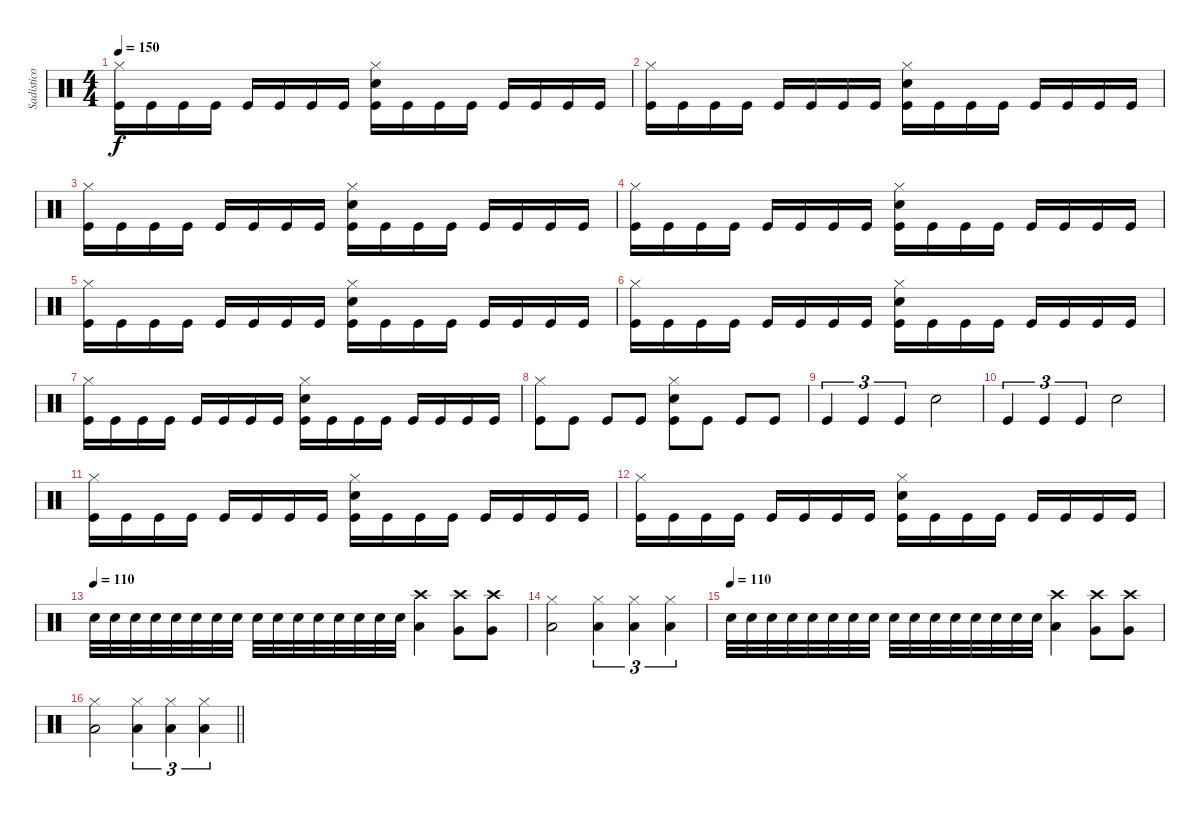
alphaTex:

\track ("Sadistico" "Sadistico") {solo instrument percussion}
\staff {score}
\articulation defaults
\ts (4 4)
\tempo 150
\clef neutral
\ks c
("Hi-Hat (closed)" "Kick (hit)").16{dy f} "Kick (hit)".16 "Kick (hit)".16 "Kick (hit)".16 "Kick (hit)".16 "Kick (hit)".16 "Kick (hit)".16 "Kick (hit)".16 ("Hi-Hat (closed)" "Snare (hit) 2" "Kick (hit)").16 "Kick (hit)".16 "Kick (hit)".16 "Kick (hit)".16 "Kick (hit)".16 "Kick (hit)".16 "Kick (hit)".16 "Kick (hit)".16 |
("Hi-Hat (closed)" "Kick (hit)").16 "Kick (hit)".16 "Kick (hit)".16 "Kick (hit)".16 "Kick (hit)".16 "Kick (hit)".16 "Kick (hit)".16 "Kick (hit)".16 ("Hi-Hat (closed)" "Snare (hit) 2" "Kick (hit)").16 "Kick (hit)".16 "Kick (hit)".16 "Kick (hit)".16 "Kick (hit)".16 "Kick (hit)".16 "Kick (hit)".16 "Kick (hit)".16 |
("Hi-Hat (closed)" "Kick (hit)").16 "Kick (hit)".16 "Kick (hit)".16 "Kick (hit)".16 "Kick (hit)".16 "Kick (hit)".16 "Kick (hit)".16 "Kick (hit)".16 ("Hi-Hat (closed)" "Snare (hit) 2" "Kick (hit)").16 "Kick (hit)".16 "Kick (hit)".16 "Kick (hit)".16 "Kick (hit)".16 "Kick (hit)".16 "Kick (hit)".16 "Kick (hit)".16 |
("Hi-Hat (closed)" "Kick (hit)").16 "Kick (hit)".16 "Kick (hit)".16 "Kick (hit)".16 "Kick (hit)".16 "Kick (hit)".16 "Kick (hit)".16 "Kick (hit)".16 ("Hi-Hat (closed)" "Snare (hit) 2" "Kick (hit)").16 "Kick (hit)".16 "Kick (hit)".16 "Kick (hit)".16 "Kick (hit)".16 "Kick (hit)".16 "Kick (hit)".16 "Kick (hit)".16 |
("Hi-Hat (closed)" "Kick (hit)").16 "Kick (hit)".16 "Kick (hit)".16 "Kick (hit)".16 "Kick (hit)".16 "Kick (hit)".16 "Kick (hit)".16 "Kick (hit)".16 ("Hi-Hat (closed)" "Snare (hit) 2" "Kick (hit)").16 "Kick (hit)".16 "Kick (hit)".16 "Kick (hit)".16 "Kick (hit)".16 "Kick (hit)".16 "Kick (hit)".16 "Kick (hit)".16 |
("Hi-Hat (closed)" "Kick (hit)").16 "Kick (hit)".16 "Kick (hit)".16 "Kick (hit)".16 "Kick (hit)".16 "Kick (hit)".16 "Kick (hit)".16 "Kick (hit)".16 ("Hi-Hat (closed)" "Snare (hit) 2" "Kick (hit)").16 "Kick (hit)".16 "Kick (hit)".16 "Kick (hit)".16 "Kick (hit)".16 "Kick (hit)".16 "Kick (hit)".16 "Kick (hit)".16 |
("Hi-Hat (closed)" "Kick (hit)").16 "Kick (hit)".16 "Kick (hit)".16 "Kick (hit)".16 "Kick (hit)".16 "Kick (hit)".16 "Kick (hit)".16 "Kick (hit)".16 ("Hi-Hat (closed)" "Snare (hit) 2" "Kick (hit)").16 "Kick (hit)".16 "Kick (hit)".16 "Kick (hit)".16 "Kick (hit)".16 "Kick (hit)".16 "Kick (hit)".16 "Kick (hit)".16 |
("Hi-Hat (closed)" "Kick (hit)").8 "Kick (hit)".8 "Kick (hit)".8 "Kick (hit)".8 ("Hi-Hat (closed)" "Snare (hit) 2" "Kick (hit)").8 "Kick (hit)".8 "Kick (hit)".8 "Kick (hit)".8 |
"Kick (hit)".4{tu (3 2)} "Kick (hit)".4{tu (3 2)} "Kick (hit)".4{tu (3 2)} "Snare (hit) 2".2 |
"Kick (hit)".4{tu (3 2)} "Kick (hit)".4{tu (3 2)} "Kick (hit)".4{tu (3 2)} "Snare (hit) 2".2 |
("Hi-Hat (closed)" "Kick (hit)").16 "Kick (hit)".16 "Kick (hit)".16 "Kick (hit)".16 "Kick (hit)".16 "Kick (hit)".16 "Kick (hit)".16 "Kick (hit)".16 ("Hi-Hat (closed)" "Snare (hit) 2" "Kick (hit)").16 "Kick (hit)".16 "Kick (hit)".16 "Kick (hit)".16 "Kick (hit)".16 "Kick (hit)".16 "Kick (hit)".16 "Kick (hit)".16 |
("Hi-Hat (closed)" "Kick (hit)").16 "Kick (hit)".16 "Kick (hit)".16 "Kick (hit)".16 "Kick (hit)".16 "Kick (hit)".16 "Kick (hit)".16 "Kick (hit)".16 ("Hi-Hat (closed)" "Snare (hit) 2" "Kick (hit)").16 "Kick (hit)".16 "Kick (hit)".16 "Kick (hit)".16 "Kick (hit)".16 "Kick (hit)".16 "Kick (hit)".16 "Kick (hit)".16 |
\tempo (110)
"Snare (hit) 2".32 "Snare (hit) 2".32 "Snare (hit) 2".32 "Snare (hit) 2".32 "Snare (hit) 2".32 "Snare (hit) 2".32 "Snare (hit) 2".32 "Snare (hit) 2".32 "Snare (hit) 2".32 "Snare (hit) 2".32 "Snare (hit) 2".32 "Snare (hit) 2".32 "Snare (hit) 2".32 "Snare (hit) 2".32 "Snare (hit) 2".32 "Snare (hit) 2".32 ("Crash high (hit)" "Low Tom (hit)").4 ("Crash high (hit)" "Very Low Tom (hit)").8 ("Crash high (hit)" "Very Low Tom (hit)").8 |
("Hi-Hat (closed)" "Low Floor Tom (hit)").2 ("Hi-Hat (closed)" "Low Floor Tom (hit)").4{tu (3 2)} ("Hi-Hat (closed)" "Low Floor Tom (hit)").4{tu (3 2)} ("Hi-Hat (closed)" "Low Floor Tom (hit)").4{tu (3 2)} |
\tempo (110)
"Snare (hit) 2".32 "Snare (hit) 2".32 "Snare (hit) 2".32 "Snare (hit) 2".32 "Snare (hit) 2".32 "Snare (hit) 2".32 "Snare (hit) 2".32 "Snare (hit) 2".32 "Snare (hit) 2".32 "Snare (hit) 2".32 "Snare (hit) 2".32 "Snare (hit) 2".32 "Snare (hit) 2".32 "Snare (hit) 2".32 "Snare (hit) 2".32 "Snare (hit) 2".32 ("Crash high (hit)" "Low Tom (hit)").4 ("Crash high (hit)" "Very Low Tom (hit)").8 ("Crash high (hit)" "Very Low Tom (hit)").8 |
\barLineRight lightlight
("Hi-Hat (closed)" "Low Floor Tom (hit)").2 ("Hi-Hat (closed)" "Low Floor Tom (hit)").4{tu (3 2)} ("Hi-Hat (closed)" "Low Floor Tom (hit)").4{tu (3 2)} ("Hi-Hat (closed)" "Low Floor Tom (hit)").4{tu (3 2)}
